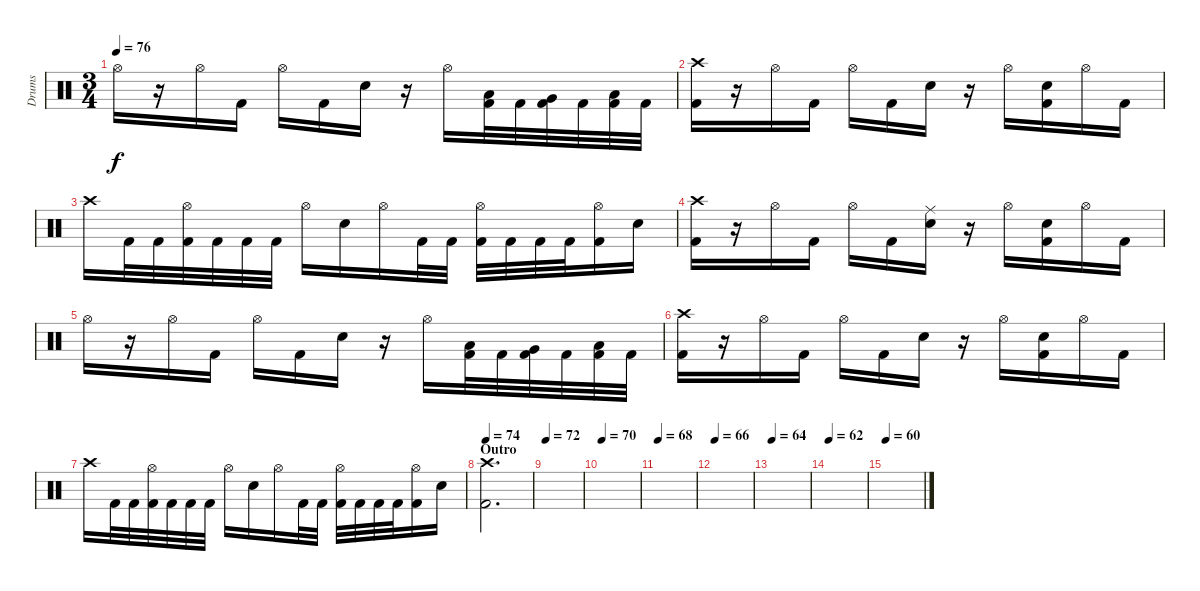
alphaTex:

\track ("Drums" "Drums") {instrument percussion}
\staff {score}
\articulation defaults
\ts (3 4)
\tempo 76
\clef neutral
\ks c "Hi-Hat (open)".16{dy f}
r.16 "Hi-Hat (open)".16 "Kick (hit) 2".16 "Hi-Hat (open)".16 "Kick (hit) 2".16 "Snare (hit) 2".16 r.16 "Hi-Hat (open)".16 ("Kick (hit) 2" "Low Tom (hit)").32 "Kick (hit) 2".32 ("Kick (hit) 2" "Very Low Tom (hit)").32 "Kick (hit) 2".32 ("Kick (hit) 2" "Low Floor Tom (hit)").32 "Kick (hit) 2".32 |
("Crash high (hit)" "Kick (hit) 2").16 r.16 "Hi-Hat (open)".16 "Kick (hit) 2".16 "Hi-Hat (open)".16 "Kick (hit) 2".16 "Snare (hit) 2".16 r.16 "Hi-Hat (open)".16 ("Snare (hit) 2" "Kick (hit) 2").16 "Hi-Hat (open)".16 "Kick (hit) 2".16 |
"Crash high (hit)".16 "Kick (hit) 2".32 "Kick (hit) 2".32 ("Hi-Hat (open)" "Kick (hit) 2").32 "Kick (hit) 2".32 "Kick (hit) 2".32 "Kick (hit) 2".32 "Hi-Hat (open)".16 "Snare (hit) 2".16 "Hi-Hat (open)".16 "Kick (hit) 2".32 "Kick (hit) 2".32 ("Hi-Hat (open)" "Kick (hit) 2").32 "Kick (hit) 2".32 "Kick (hit) 2".32 "Kick (hit) 2".32 ("Hi-Hat (open)" "Kick (hit) 2").16 "Snare (hit) 2".16 |
("Crash high (hit)" "Kick (hit) 2").16 r.16 "Hi-Hat (open)".16 "Kick (hit) 2".16 "Hi-Hat (open)".16 "Kick (hit) 2".16 ("Ride (middle)" "Snare (hit) 2").16 r.16 "Hi-Hat (open)".16 ("Snare (hit) 2" "Kick (hit) 2").16 "Hi-Hat (open)".16 "Kick (hit) 2".16 |
"Hi-Hat (open)".16 r.16 "Hi-Hat (open)".16 "Kick (hit) 2".16 "Hi-Hat (open)".16 "Kick (hit) 2".16 "Snare (hit) 2".16 r.16 "Hi-Hat (open)".16 ("Kick (hit) 2" "Low Tom (hit)").32 "Kick (hit) 2".32 ("Kick (hit) 2" "Very Low Tom (hit)").32 "Kick (hit) 2".32 ("Kick (hit) 2" "Low Floor Tom (hit)").32 "Kick (hit) 2".32 |
("Crash high (hit)" "Kick (hit) 2").16 r.16 "Hi-Hat (open)".16 "Kick (hit) 2".16 "Hi-Hat (open)".16 "Kick (hit) 2".16 "Snare (hit) 2".16 r.16 "Hi-Hat (open)".16 ("Snare (hit) 2" "Kick (hit) 2").16 "Hi-Hat (open)".16 "Kick (hit) 2".16 |
"Crash high (hit)".16 "Kick (hit) 2".32 "Kick (hit) 2".32 ("Hi-Hat (open)" "Kick (hit) 2").32 "Kick (hit) 2".32 "Kick (hit) 2".32 "Kick (hit) 2".32 "Hi-Hat (open)".16 "Snare (hit) 2".16 "Hi-Hat (open)".16 "Kick (hit) 2".32 "Kick (hit) 2".32 ("Hi-Hat (open)" "Kick (hit) 2").32 "Kick (hit) 2".32 "Kick (hit) 2".32 "Kick (hit) 2".32 ("Hi-Hat (open)" "Kick (hit) 2").16 "Snare (hit) 2".16 |
\section ("" "Outro")
\tempo 74
("Crash high (hit)" "Kick (hit) 2").2{d} |
\tempo 72
|
\tempo 70
|
\tempo 68
|
\tempo 66
|
\tempo 64
|
\tempo 62
|
\tempo 60
